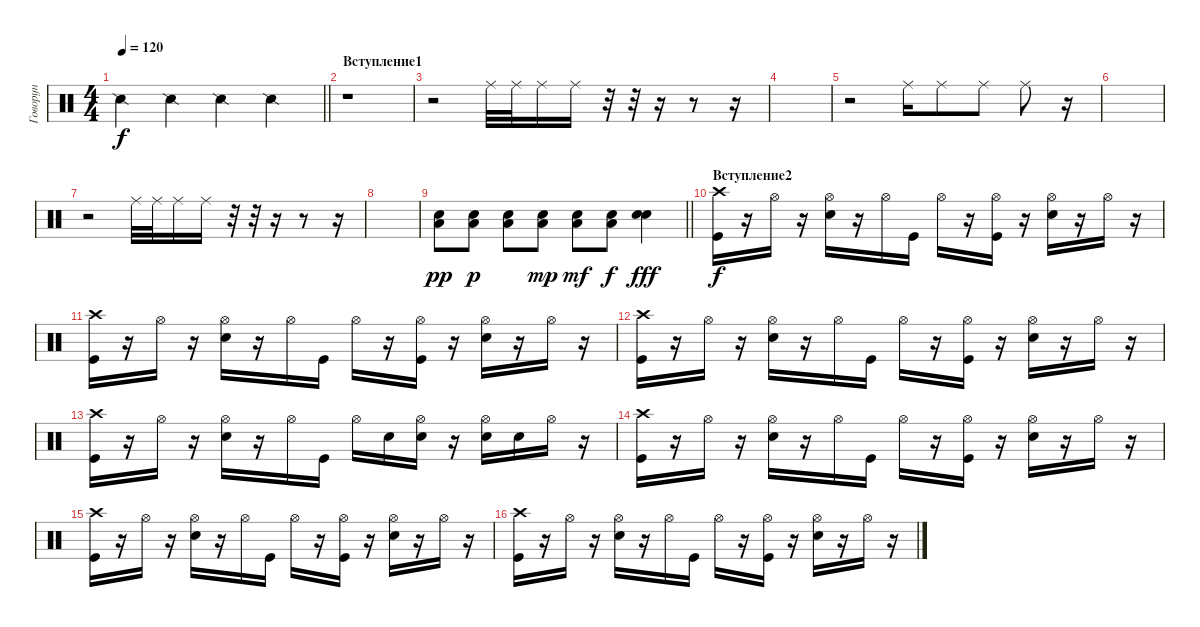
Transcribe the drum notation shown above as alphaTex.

\track ("Говорун" "Говорун") {instrument percussion}
\staff {score}
\articulation defaults
\ts (4 4)
\tempo 120
\clef neutral
\barLineRight lightlight
\ks c "Snare (side stick) 2".4{dy f} "Snare (side stick) 2".4 "Snare (side stick) 2".4 "Snare (side stick) 2".4
|
\section ("" "Вступление1")
r.1 |
r.2 "Ride (middle)".32 "Ride (middle)".32 "Ride (middle)".16 "Ride (middle)".16 r.32 r.32 r.16 r.8 r.16 |
|
r.2 "Ride (middle)".16 "Ride (middle)".8 "Ride (middle)".8 "Ride (middle)".8 r.16 |
|
r.2 "Ride (middle)".32 "Ride (middle)".32 "Ride (middle)".16 "Ride (middle)".16 r.32 r.32 r.16 r.8 r.16 |
|
\barLineRight lightlight
("Snare (hit) 2" "Low Tom (hit)").8{dy pp} ("Snare (hit) 2" "Low Tom (hit)").8{dy p} ("Snare (hit) 2" "Low Tom (hit)").8 ("Snare (hit) 2" "Low Tom (hit)").8{dy mp} ("Snare (hit) 2" "Low Tom (hit)").8{dy mf} ("Snare (hit) 2" "Low Tom (hit)").8{dy f} ("Snare (hit) 2" "Snare (hit) 2").4{dy fff} |
\section ("" "Вступление2")
("Crash high (hit)" "Kick (hit)").16{dy f} r.16 "Hi-Hat (open)".16 r.16 ("Hi-Hat (open)" "Snare (hit) 2").16 r.16 "Hi-Hat (open)".16 "Kick (hit)".16 "Hi-Hat (open)".16 r.16 ("Hi-Hat (open)" "Kick (hit)").16 r.16 ("Hi-Hat (open)" "Snare (hit) 2").16 r.16 "Hi-Hat (open)".16 r.16 |
("Crash high (hit)" "Kick (hit)").16 r.16 "Hi-Hat (open)".16 r.16 ("Hi-Hat (open)" "Snare (hit) 2").16 r.16 "Hi-Hat (open)".16 "Kick (hit)".16 "Hi-Hat (open)".16 r.16 ("Hi-Hat (open)" "Kick (hit)").16 r.16 ("Hi-Hat (open)" "Snare (hit) 2").16 r.16 "Hi-Hat (open)".16 r.16 |
("Crash high (hit)" "Kick (hit)").16 r.16 "Hi-Hat (open)".16 r.16 ("Hi-Hat (open)" "Snare (hit) 2").16 r.16 "Hi-Hat (open)".16 "Kick (hit)".16 "Hi-Hat (open)".16 r.16 ("Hi-Hat (open)" "Kick (hit)").16 r.16 ("Hi-Hat (open)" "Snare (hit) 2").16 r.16 "Hi-Hat (open)".16 r.16 |
("Crash high (hit)" "Kick (hit)").16 r.16 "Hi-Hat (open)".16 r.16 ("Hi-Hat (open)" "Snare (hit) 2").16 r.16 "Hi-Hat (open)".16 "Kick (hit)".16 "Hi-Hat (open)".16 "Snare (hit) 2".16 ("Hi-Hat (open)" "Snare (hit) 2").16 r.16 ("Hi-Hat (open)" "Snare (hit) 2").16 "Snare (hit) 2".16 "Hi-Hat (open)".16 r.16 |
("Crash high (hit)" "Kick (hit)").16 r.16 "Hi-Hat (open)".16 r.16 ("Hi-Hat (open)" "Snare (hit) 2").16 r.16 "Hi-Hat (open)".16 "Kick (hit)".16 "Hi-Hat (open)".16 r.16 ("Hi-Hat (open)" "Kick (hit)").16 r.16 ("Hi-Hat (open)" "Snare (hit) 2").16 r.16 "Hi-Hat (open)".16 r.16 |
("Crash high (hit)" "Kick (hit)").16 r.16 "Hi-Hat (open)".16 r.16 ("Hi-Hat (open)" "Snare (hit) 2").16 r.16 "Hi-Hat (open)".16 "Kick (hit)".16 "Hi-Hat (open)".16 r.16 ("Hi-Hat (open)" "Kick (hit)").16 r.16 ("Hi-Hat (open)" "Snare (hit) 2").16 r.16 "Hi-Hat (open)".16 r.16 |
("Crash high (hit)" "Kick (hit)").16 r.16 "Hi-Hat (open)".16 r.16 ("Hi-Hat (open)" "Snare (hit) 2").16 r.16 "Hi-Hat (open)".16 "Kick (hit)".16 "Hi-Hat (open)".16 r.16 ("Hi-Hat (open)" "Kick (hit)").16 r.16 ("Hi-Hat (open)" "Snare (hit) 2").16 r.16 "Hi-Hat (open)".16 r.16
